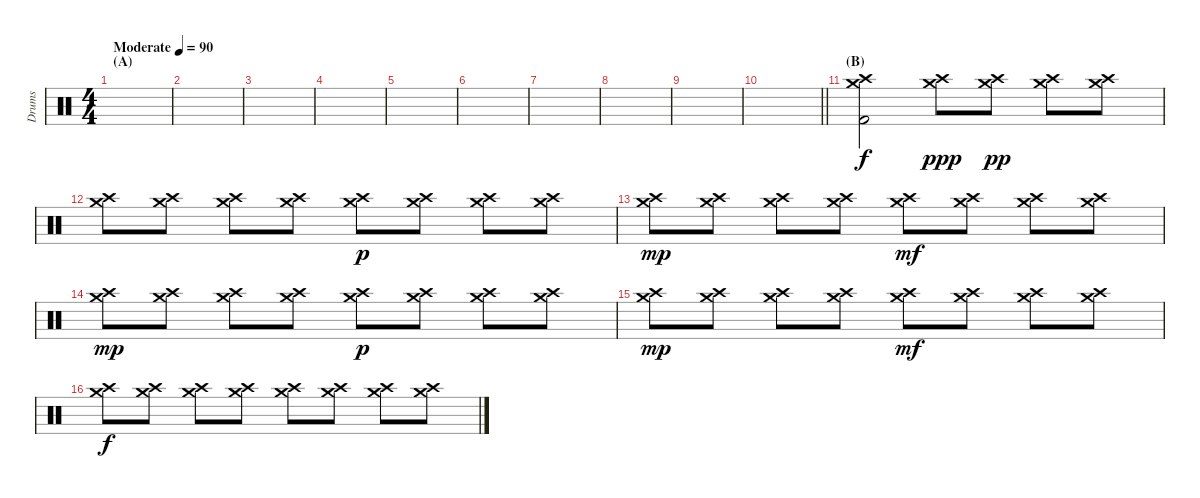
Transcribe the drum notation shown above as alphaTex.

\track ("Drums" "Drums") {instrument percussion}
\staff {score}
\articulation defaults
\ts (4 4)
\section ("" "(A)")
\tempo (90 "Moderate")
\clef neutral
\ks c
|
|
|
|
|
|
|
|
|
\barLineRight lightlight
|
\section ("" "(B)")
("Crash medium (hit)" "Crash high (hit)" "Kick (hit) 2").2 ("Crash medium (hit)" "Crash high (hit)").8{dy ppp} ("Crash medium (hit)" "Crash high (hit)").8{dy pp} ("Crash medium (hit)" "Crash high (hit)").8 ("Crash medium (hit)" "Crash high (hit)").8 |
("Crash medium (hit)" "Crash high (hit)").8 ("Crash medium (hit)" "Crash high (hit)").8 ("Crash medium (hit)" "Crash high (hit)").8 ("Crash medium (hit)" "Crash high (hit)").8 ("Crash medium (hit)" "Crash high (hit)").8{dy p} ("Crash medium (hit)" "Crash high (hit)").8 ("Crash medium (hit)" "Crash high (hit)").8 ("Crash medium (hit)" "Crash high (hit)").8 |
("Crash medium (hit)" "Crash high (hit)").8{dy mp} ("Crash medium (hit)" "Crash high (hit)").8 ("Crash medium (hit)" "Crash high (hit)").8 ("Crash medium (hit)" "Crash high (hit)").8 ("Crash medium (hit)" "Crash high (hit)").8{dy mf} ("Crash medium (hit)" "Crash high (hit)").8 ("Crash medium (hit)" "Crash high (hit)").8 ("Crash medium (hit)" "Crash high (hit)").8 |
("Crash medium (hit)" "Crash high (hit)").8{dy mp} ("Crash medium (hit)" "Crash high (hit)").8 ("Crash medium (hit)" "Crash high (hit)").8 ("Crash medium (hit)" "Crash high (hit)").8 ("Crash medium (hit)" "Crash high (hit)").8{dy p} ("Crash medium (hit)" "Crash high (hit)").8 ("Crash medium (hit)" "Crash high (hit)").8 ("Crash medium (hit)" "Crash high (hit)").8 |
("Crash medium (hit)" "Crash high (hit)").8{dy mp} ("Crash medium (hit)" "Crash high (hit)").8 ("Crash medium (hit)" "Crash high (hit)").8 ("Crash medium (hit)" "Crash high (hit)").8 ("Crash medium (hit)" "Crash high (hit)").8{dy mf} ("Crash medium (hit)" "Crash high (hit)").8 ("Crash medium (hit)" "Crash high (hit)").8 ("Crash medium (hit)" "Crash high (hit)").8 |
("Crash medium (hit)" "Crash high (hit)").8{dy f} ("Crash medium (hit)" "Crash high (hit)").8 ("Crash medium (hit)" "Crash high (hit)").8 ("Crash medium (hit)" "Crash high (hit)").8 ("Crash medium (hit)" "Crash high (hit)").8 ("Crash medium (hit)" "Crash high (hit)").8 ("Crash medium (hit)" "Crash high (hit)").8 ("Crash medium (hit)" "Crash high (hit)").8
